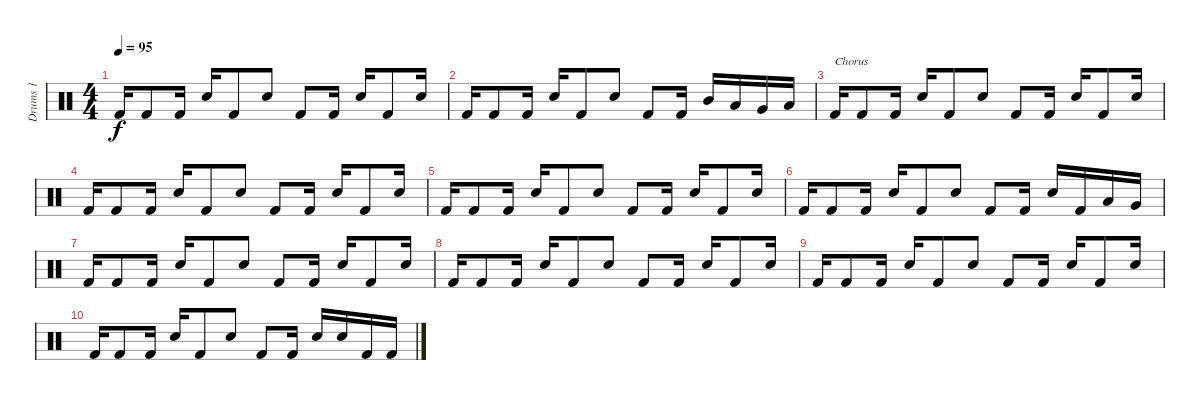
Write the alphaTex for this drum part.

\track ("Drums 1" "Drums 1") {instrument percussion}
\staff {score}
\articulation defaults
\ts (4 4)
\tempo 95
\clef neutral
\ks c "Kick (hit) 2".16{dy f} "Kick (hit) 2".8 "Kick (hit) 2".16 "Snare (hit) 2".16 "Kick (hit) 2".8 "Snare (hit) 2".8 "Kick (hit) 2".8 "Kick (hit) 2".16 "Snare (hit) 2".16 "Kick (hit) 2".8 "Snare (hit) 2".16
|
"Kick (hit) 2".16 "Kick (hit) 2".8 "Kick (hit) 2".16 "Snare (hit) 2".16 "Kick (hit) 2".8 "Snare (hit) 2".8 "Kick (hit) 2".8 "Kick (hit) 2".16 "Mid Tom (hit)".16 "Low Tom (hit)".16 "Very Low Tom (hit)".16 "Low Floor Tom (hit)".16 |
"Kick (hit) 2".16{txt "Chorus"} "Kick (hit) 2".8 "Kick (hit) 2".16 "Snare (hit) 2".16 "Kick (hit) 2".8 "Snare (hit) 2".8 "Kick (hit) 2".8 "Kick (hit) 2".16 "Snare (hit) 2".16 "Kick (hit) 2".8 "Snare (hit) 2".16 |
"Kick (hit) 2".16 "Kick (hit) 2".8 "Kick (hit) 2".16 "Snare (hit) 2".16 "Kick (hit) 2".8 "Snare (hit) 2".8 "Kick (hit) 2".8 "Kick (hit) 2".16 "Snare (hit) 2".16 "Kick (hit) 2".8 "Snare (hit) 2".16 |
"Kick (hit) 2".16 "Kick (hit) 2".8 "Kick (hit) 2".16 "Snare (hit) 2".16 "Kick (hit) 2".8 "Snare (hit) 2".8 "Kick (hit) 2".8 "Kick (hit) 2".16 "Snare (hit) 2".16 "Kick (hit) 2".8 "Snare (hit) 2".16 |
"Kick (hit) 2".16 "Kick (hit) 2".8 "Kick (hit) 2".16 "Snare (hit) 2".16 "Kick (hit) 2".8 "Snare (hit) 2".8 "Kick (hit) 2".8 "Kick (hit) 2".16 "Snare (hit) 2".16 "Kick (hit) 2".16 "Low Tom (hit)".16 "Very Low Tom (hit)".16 |
"Kick (hit) 2".16 "Kick (hit) 2".8 "Kick (hit) 2".16 "Snare (hit) 2".16 "Kick (hit) 2".8 "Snare (hit) 2".8 "Kick (hit) 2".8 "Kick (hit) 2".16 "Snare (hit) 2".16 "Kick (hit) 2".8 "Snare (hit) 2".16 |
"Kick (hit) 2".16 "Kick (hit) 2".8 "Kick (hit) 2".16 "Snare (hit) 2".16 "Kick (hit) 2".8 "Snare (hit) 2".8 "Kick (hit) 2".8 "Kick (hit) 2".16 "Snare (hit) 2".16 "Kick (hit) 2".8 "Snare (hit) 2".16 |
"Kick (hit) 2".16 "Kick (hit) 2".8 "Kick (hit) 2".16 "Snare (hit) 2".16 "Kick (hit) 2".8 "Snare (hit) 2".8 "Kick (hit) 2".8 "Kick (hit) 2".16 "Snare (hit) 2".16 "Kick (hit) 2".8 "Snare (hit) 2".16 |
"Kick (hit) 2".16 "Kick (hit) 2".8 "Kick (hit) 2".16 "Snare (hit) 2".16 "Kick (hit) 2".8 "Snare (hit) 2".8 "Kick (hit) 2".8 "Kick (hit) 2".16 "Snare (hit) 2".16 "Snare (hit) 2".16 "Kick (hit) 2".16 "Kick (hit) 2".16
